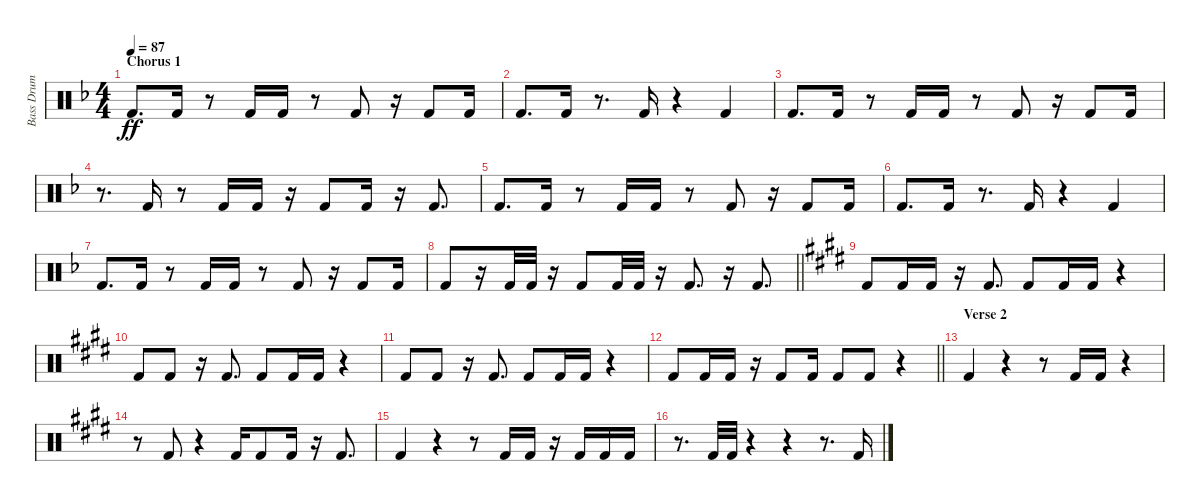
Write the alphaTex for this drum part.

\track ("Bass Drum" "Bass Drum") {instrument percussion}
\staff {score}
\articulation defaults
\ts (4 4)
\section ("" "Chorus 1")
\tempo 87
\clef neutral
\ks dminor "Kick (hit) 2".8{d dy ff} "Kick (hit) 2".16
r.8 "Kick (hit) 2".16 "Kick (hit) 2".16 r.8 "Kick (hit) 2".8 r.16 "Kick (hit) 2".8 "Kick (hit) 2".16 |
"Kick (hit) 2".8{d} "Kick (hit) 2".16 r.8{d} "Kick (hit) 2".16 r.4 "Kick (hit) 2".4 |
"Kick (hit) 2".8{d} "Kick (hit) 2".16 r.8 "Kick (hit) 2".16 "Kick (hit) 2".16 r.8 "Kick (hit) 2".8 r.16 "Kick (hit) 2".8 "Kick (hit) 2".16 |
r.8{d} "Kick (hit) 2".16 r.8 "Kick (hit) 2".16 "Kick (hit) 2".16 r.16 "Kick (hit) 2".8 "Kick (hit) 2".16 r.16 "Kick (hit) 2".8{d} |
"Kick (hit) 2".8{d} "Kick (hit) 2".16 r.8 "Kick (hit) 2".16 "Kick (hit) 2".16 r.8 "Kick (hit) 2".8 r.16 "Kick (hit) 2".8 "Kick (hit) 2".16 |
"Kick (hit) 2".8{d} "Kick (hit) 2".16 r.8{d} "Kick (hit) 2".16 r.4 "Kick (hit) 2".4 |
"Kick (hit) 2".8{d} "Kick (hit) 2".16 r.8 "Kick (hit) 2".16 "Kick (hit) 2".16 r.8 "Kick (hit) 2".8 r.16 "Kick (hit) 2".8 "Kick (hit) 2".16 |
\barLineRight lightlight "Kick (hit) 2".8
r.16 "Kick (hit) 2".32 "Kick (hit) 2".32 r.16 "Kick (hit) 2".8 "Kick (hit) 2".32 "Kick (hit) 2".32 r.16 "Kick (hit) 2".8{d} r.16 "Kick (hit) 2".8{d} |
\ks c#minor "Kick (hit) 2".8 "Kick (hit) 2".16 "Kick (hit) 2".16
r.16 "Kick (hit) 2".8{d} "Kick (hit) 2".8 "Kick (hit) 2".16 "Kick (hit) 2".16 r.4 |
"Kick (hit) 2".8 "Kick (hit) 2".8 r.16 "Kick (hit) 2".8{d} "Kick (hit) 2".8 "Kick (hit) 2".16 "Kick (hit) 2".16 r.4 |
"Kick (hit) 2".8 "Kick (hit) 2".8 r.16 "Kick (hit) 2".8{d} "Kick (hit) 2".8 "Kick (hit) 2".16 "Kick (hit) 2".16 r.4 |
\barLineRight lightlight "Kick (hit) 2".8 "Kick (hit) 2".16 "Kick (hit) 2".16
r.16 "Kick (hit) 2".8 "Kick (hit) 2".16 "Kick (hit) 2".8 "Kick (hit) 2".8 r.4 |
\section ("" "Verse 2")
"Kick (hit) 2".4 r.4 r.8 "Kick (hit) 2".16 "Kick (hit) 2".16 r.4 |
r.8 "Kick (hit) 2".8 r.4 "Kick (hit) 2".16 "Kick (hit) 2".8 "Kick (hit) 2".16 r.16 "Kick (hit) 2".8{d} |
"Kick (hit) 2".4 r.4 r.8 "Kick (hit) 2".16 "Kick (hit) 2".16 r.16 "Kick (hit) 2".16 "Kick (hit) 2".16 "Kick (hit) 2".16 |
r.8{d} "Kick (hit) 2".32 "Kick (hit) 2".32 r.4 r.4 r.8{d} "Kick (hit) 2".16
